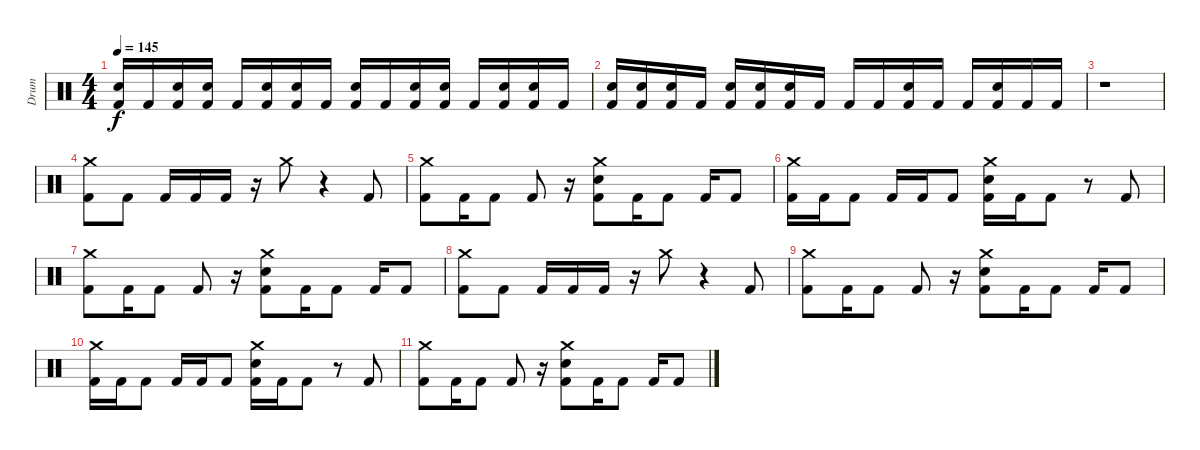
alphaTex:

\track ("Drum" "Drum") {instrument percussion}
\staff
\articulation defaults
\ts (4 4)
\tempo 145
\clef neutral
\ks c
("Electric Snare (hit)" "Kick (hit) 2").16{dy f} "Kick (hit) 2".16 ("Electric Snare (hit)" "Kick (hit) 2").16 ("Electric Snare (hit)" "Kick (hit) 2").16 "Kick (hit) 2".16 ("Electric Snare (hit)" "Kick (hit) 2").16 ("Electric Snare (hit)" "Kick (hit) 2").16 "Kick (hit) 2".16 ("Electric Snare (hit)" "Kick (hit) 2").16 "Kick (hit) 2".16 ("Electric Snare (hit)" "Kick (hit) 2").16 ("Electric Snare (hit)" "Kick (hit) 2").16 "Kick (hit) 2".16 ("Electric Snare (hit)" "Kick (hit) 2").16 ("Electric Snare (hit)" "Kick (hit) 2").16 "Kick (hit) 2".16 |
("Electric Snare (hit)" "Kick (hit) 2").16 ("Electric Snare (hit)" "Kick (hit) 2").16 ("Electric Snare (hit)" "Kick (hit) 2").16 "Kick (hit) 2".16 ("Electric Snare (hit)" "Kick (hit) 2").16 ("Electric Snare (hit)" "Kick (hit) 2").16 ("Electric Snare (hit)" "Kick (hit) 2").16 "Kick (hit) 2".16 "Kick (hit) 2".16 "Kick (hit) 2".16 ("Electric Snare (hit)" "Kick (hit) 2").16 "Kick (hit) 2".16 "Kick (hit) 2".16 ("Electric Snare (hit)" "Kick (hit) 2").16 "Kick (hit) 2".16 "Kick (hit) 2".16 |
r.1 |
("Crash medium (hit)" "Kick (hit) 2").8 "Kick (hit) 2".8 "Kick (hit) 2".16 "Kick (hit) 2".16 "Kick (hit) 2".16 r.16 "Crash medium (hit)".8 r.4 "Kick (hit) 2".8 |
("Crash medium (hit)" "Kick (hit) 2").8 "Kick (hit) 2".16 "Kick (hit) 2".8 "Kick (hit) 2".8 r.16 ("Crash medium (hit)" "Electric Snare (hit)" "Kick (hit) 2").8 "Kick (hit) 2".16 "Kick (hit) 2".8 "Kick (hit) 2".16 "Kick (hit) 2".8 |
("Crash medium (hit)" "Kick (hit) 2").16 "Kick (hit) 2".16 "Kick (hit) 2".8 "Kick (hit) 2".16 "Kick (hit) 2".16 "Kick (hit) 2".8 ("Crash medium (hit)" "Electric Snare (hit)" "Kick (hit) 2").16 "Kick (hit) 2".16 "Kick (hit) 2".8 r.8 "Kick (hit) 2".8 |
("Crash medium (hit)" "Kick (hit) 2").8 "Kick (hit) 2".16 "Kick (hit) 2".8 "Kick (hit) 2".8 r.16 ("Crash medium (hit)" "Electric Snare (hit)" "Kick (hit) 2").8 "Kick (hit) 2".16 "Kick (hit) 2".8 "Kick (hit) 2".16 "Kick (hit) 2".8 |
("Crash medium (hit)" "Kick (hit) 2").8 "Kick (hit) 2".8 "Kick (hit) 2".16 "Kick (hit) 2".16 "Kick (hit) 2".16 r.16 "Crash medium (hit)".8 r.4 "Kick (hit) 2".8 |
("Crash medium (hit)" "Kick (hit) 2").8 "Kick (hit) 2".16 "Kick (hit) 2".8 "Kick (hit) 2".8 r.16 ("Crash medium (hit)" "Electric Snare (hit)" "Kick (hit) 2").8 "Kick (hit) 2".16 "Kick (hit) 2".8 "Kick (hit) 2".16 "Kick (hit) 2".8 |
("Crash medium (hit)" "Kick (hit) 2").16 "Kick (hit) 2".16 "Kick (hit) 2".8 "Kick (hit) 2".16 "Kick (hit) 2".16 "Kick (hit) 2".8 ("Crash medium (hit)" "Electric Snare (hit)" "Kick (hit) 2").16 "Kick (hit) 2".16 "Kick (hit) 2".8 r.8 "Kick (hit) 2".8 |
("Crash medium (hit)" "Kick (hit) 2").8 "Kick (hit) 2".16 "Kick (hit) 2".8 "Kick (hit) 2".8 r.16 ("Crash medium (hit)" "Electric Snare (hit)" "Kick (hit) 2").8 "Kick (hit) 2".16 "Kick (hit) 2".8 "Kick (hit) 2".16 "Kick (hit) 2".8
